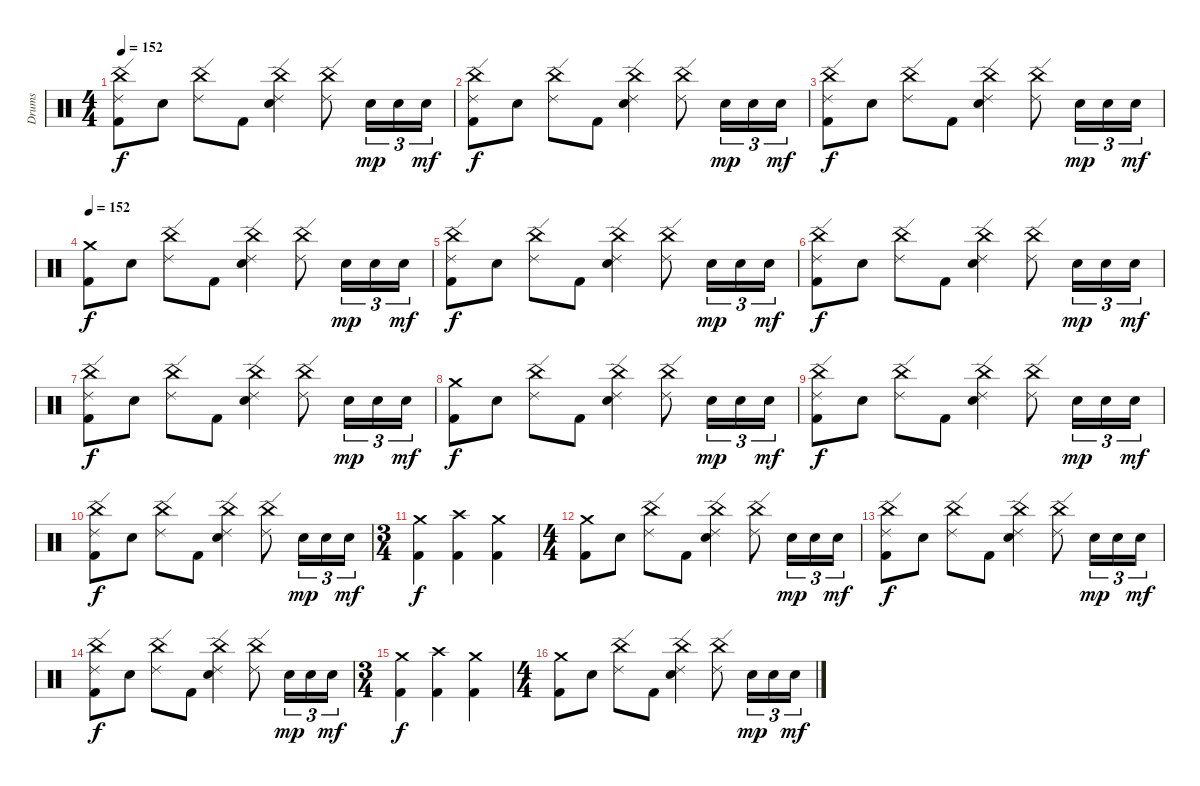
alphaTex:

\track ("Drums" "Drums") {instrument percussion}
\staff {score}
\articulation defaults
\ts (4 4)
\tempo 152
\clef neutral
\ks c
("China (hit)" "Ride (edge) 2" "Kick (hit) 2").8{dy f} "Snare (hit) 2".8 ("China (hit)" "Ride (edge) 2").8 "Kick (hit) 2".8 ("China (hit)" "Ride (edge) 2" "Snare (hit) 2").4 ("China (hit)" "Ride (edge) 2").8 "Snare (hit) 2".16{tu (3 2) dy mp} "Snare (hit) 2".16{tu (3 2)} "Snare (hit) 2".16{tu (3 2) dy mf} |
("China (hit)" "Ride (edge) 2" "Kick (hit) 2").8{dy f} "Snare (hit) 2".8 ("China (hit)" "Ride (edge) 2").8 "Kick (hit) 2".8 ("China (hit)" "Ride (edge) 2" "Snare (hit) 2").4 ("China (hit)" "Ride (edge) 2").8 "Snare (hit) 2".16{tu (3 2) dy mp} "Snare (hit) 2".16{tu (3 2)} "Snare (hit) 2".16{tu (3 2) dy mf} |
("China (hit)" "Ride (edge) 2" "Kick (hit) 2").8{dy f} "Snare (hit) 2".8 ("China (hit)" "Ride (edge) 2").8 "Kick (hit) 2".8 ("China (hit)" "Ride (edge) 2" "Snare (hit) 2").4 ("China (hit)" "Ride (edge) 2").8 "Snare (hit) 2".16{tu (3 2) dy mp} "Snare (hit) 2".16{tu (3 2)} "Snare (hit) 2".16{tu (3 2) dy mf} |
\tempo 152
("Crash medium (hit)" "Kick (hit) 2").8{dy f} "Snare (hit) 2".8 ("China (hit)" "Ride (edge) 2").8 "Kick (hit) 2".8 ("China (hit)" "Ride (edge) 2" "Snare (hit) 2").4 ("China (hit)" "Ride (edge) 2").8 "Snare (hit) 2".16{tu (3 2) dy mp} "Snare (hit) 2".16{tu (3 2)} "Snare (hit) 2".16{tu (3 2) dy mf} |
("China (hit)" "Ride (edge) 2" "Kick (hit) 2").8{dy f} "Snare (hit) 2".8 ("China (hit)" "Ride (edge) 2").8 "Kick (hit) 2".8 ("China (hit)" "Ride (edge) 2" "Snare (hit) 2").4 ("China (hit)" "Ride (edge) 2").8 "Snare (hit) 2".16{tu (3 2) dy mp} "Snare (hit) 2".16{tu (3 2)} "Snare (hit) 2".16{tu (3 2) dy mf} |
("China (hit)" "Ride (edge) 2" "Kick (hit) 2").8{dy f} "Snare (hit) 2".8 ("China (hit)" "Ride (edge) 2").8 "Kick (hit) 2".8 ("China (hit)" "Ride (edge) 2" "Snare (hit) 2").4 ("China (hit)" "Ride (edge) 2").8 "Snare (hit) 2".16{tu (3 2) dy mp} "Snare (hit) 2".16{tu (3 2)} "Snare (hit) 2".16{tu (3 2) dy mf} |
("China (hit)" "Ride (edge) 2" "Kick (hit) 2").8{dy f} "Snare (hit) 2".8 ("China (hit)" "Ride (edge) 2").8 "Kick (hit) 2".8 ("China (hit)" "Ride (edge) 2" "Snare (hit) 2").4 ("China (hit)" "Ride (edge) 2").8 "Snare (hit) 2".16{tu (3 2) dy mp} "Snare (hit) 2".16{tu (3 2)} "Snare (hit) 2".16{tu (3 2) dy mf} |
("Crash medium (hit)" "Kick (hit) 2").8{dy f} "Snare (hit) 2".8 ("China (hit)" "Ride (edge) 2").8 "Kick (hit) 2".8 ("China (hit)" "Ride (edge) 2" "Snare (hit) 2").4 ("China (hit)" "Ride (edge) 2").8 "Snare (hit) 2".16{tu (3 2) dy mp} "Snare (hit) 2".16{tu (3 2)} "Snare (hit) 2".16{tu (3 2) dy mf} |
("China (hit)" "Ride (edge) 2" "Kick (hit) 2").8{dy f} "Snare (hit) 2".8 ("China (hit)" "Ride (edge) 2").8 "Kick (hit) 2".8 ("China (hit)" "Ride (edge) 2" "Snare (hit) 2").4 ("China (hit)" "Ride (edge) 2").8 "Snare (hit) 2".16{tu (3 2) dy mp} "Snare (hit) 2".16{tu (3 2)} "Snare (hit) 2".16{tu (3 2) dy mf} |
("China (hit)" "Ride (edge) 2" "Kick (hit) 2").8{dy f} "Snare (hit) 2".8 ("China (hit)" "Ride (edge) 2").8 "Kick (hit) 2".8 ("China (hit)" "Ride (edge) 2" "Snare (hit) 2").4 ("China (hit)" "Ride (edge) 2").8 "Snare (hit) 2".16{tu (3 2) dy mp} "Snare (hit) 2".16{tu (3 2)} "Snare (hit) 2".16{tu (3 2) dy mf} |
\ts (3 4)
("Crash medium (hit)" "Kick (hit) 2").4{dy f} ("Crash high (hit)" "Kick (hit) 2").4 ("Crash medium (hit)" "Kick (hit) 2").4 |
\ts (4 4)
("Crash medium (hit)" "Kick (hit) 2").8 "Snare (hit) 2".8 ("China (hit)" "Ride (edge) 2").8 "Kick (hit) 2".8 ("China (hit)" "Ride (edge) 2" "Snare (hit) 2").4 ("China (hit)" "Ride (edge) 2").8 "Snare (hit) 2".16{tu (3 2) dy mp} "Snare (hit) 2".16{tu (3 2)} "Snare (hit) 2".16{tu (3 2) dy mf} |
("China (hit)" "Ride (edge) 2" "Kick (hit) 2").8{dy f} "Snare (hit) 2".8 ("China (hit)" "Ride (edge) 2").8 "Kick (hit) 2".8 ("China (hit)" "Ride (edge) 2" "Snare (hit) 2").4 ("China (hit)" "Ride (edge) 2").8 "Snare (hit) 2".16{tu (3 2) dy mp} "Snare (hit) 2".16{tu (3 2)} "Snare (hit) 2".16{tu (3 2) dy mf} |
("China (hit)" "Ride (edge) 2" "Kick (hit) 2").8{dy f} "Snare (hit) 2".8 ("China (hit)" "Ride (edge) 2").8 "Kick (hit) 2".8 ("China (hit)" "Ride (edge) 2" "Snare (hit) 2").4 ("China (hit)" "Ride (edge) 2").8 "Snare (hit) 2".16{tu (3 2) dy mp} "Snare (hit) 2".16{tu (3 2)} "Snare (hit) 2".16{tu (3 2) dy mf} |
\ts (3 4)
("Crash medium (hit)" "Kick (hit) 2").4{dy f} ("Crash high (hit)" "Kick (hit) 2").4 ("Crash medium (hit)" "Kick (hit) 2").4 |
\ts (4 4)
("Crash medium (hit)" "Kick (hit) 2").8 "Snare (hit) 2".8 ("China (hit)" "Ride (edge) 2").8 "Kick (hit) 2".8 ("China (hit)" "Ride (edge) 2" "Snare (hit) 2").4 ("China (hit)" "Ride (edge) 2").8 "Snare (hit) 2".16{tu (3 2) dy mp} "Snare (hit) 2".16{tu (3 2)} "Snare (hit) 2".16{tu (3 2) dy mf}
